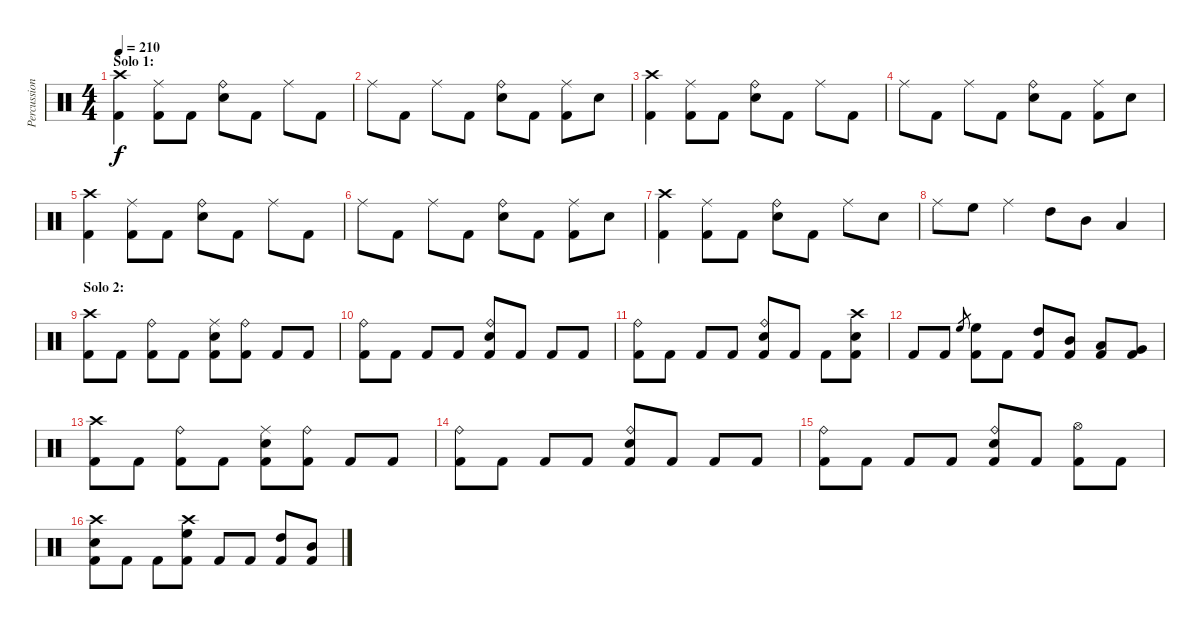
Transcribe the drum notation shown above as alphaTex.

\track ("Percussion" "Percussion") {instrument percussion}
\staff {score}
\articulation defaults
\ts (4 4)
\section ("" "Solo 1:")
\tempo 210
\clef neutral
\ks c
("Crash high (hit)" "Kick (hit) 2").4{dy f} ("Ride (middle)" "Kick (hit) 2").8 "Kick (hit) 2".8 ("Ride (bell)" "Snare (hit) 2").8 "Kick (hit) 2".8 "Ride (middle)".8 "Kick (hit) 2".8 |
"Ride (middle)".8 "Kick (hit) 2".8 "Ride (middle)".8 "Kick (hit) 2".8 ("Ride (bell)" "Snare (hit) 2").8 "Kick (hit) 2".8 ("Ride (middle)" "Kick (hit) 2").8 "Snare (hit) 2".8 |
("Crash high (hit)" "Kick (hit) 2").4 ("Ride (middle)" "Kick (hit) 2").8 "Kick (hit) 2".8 ("Ride (bell)" "Snare (hit) 2").8 "Kick (hit) 2".8 "Ride (middle)".8 "Kick (hit) 2".8 |
"Ride (middle)".8 "Kick (hit) 2".8 "Ride (middle)".8 "Kick (hit) 2".8 ("Ride (bell)" "Snare (hit) 2").8 "Kick (hit) 2".8 ("Ride (middle)" "Kick (hit) 2").8 "Snare (hit) 2".8 |
("Crash high (hit)" "Kick (hit) 2").4 ("Ride (middle)" "Kick (hit) 2").8 "Kick (hit) 2".8 ("Ride (bell)" "Snare (hit) 2").8 "Kick (hit) 2".8 "Ride (middle)".8 "Kick (hit) 2".8 |
"Ride (middle)".8 "Kick (hit) 2".8 "Ride (middle)".8 "Kick (hit) 2".8 ("Ride (bell)" "Snare (hit) 2").8 "Kick (hit) 2".8 ("Ride (middle)" "Kick (hit) 2").8 "Snare (hit) 2".8 |
("Crash high (hit)" "Kick (hit) 2").4 ("Ride (middle)" "Kick (hit) 2").8 "Kick (hit) 2".8 ("Ride (bell)" "Snare (hit) 2").8 "Kick (hit) 2".8 "Ride (middle)".8 "Snare (hit) 2".8 |
"Ride (middle)".8 "High Floor Tom (hit)".8 "Ride (middle)".4 "High Tom (hit)".8 "Mid Tom (hit)".8 "Low Tom (hit)".4 |
\section ("" "Solo 2:")
("Crash high (hit)" "Kick (hit) 2").8 "Kick (hit) 2".8 ("Ride (bell)" "Kick (hit) 2").8 "Kick (hit) 2".8 ("Ride (middle)" "Snare (hit) 2" "Kick (hit) 2").8 ("Ride (bell)" "Kick (hit) 2").8 "Kick (hit) 2".8 "Kick (hit) 2".8 |
("Ride (bell)" "Kick (hit) 2").8 "Kick (hit) 2".8 "Kick (hit) 2".8 "Kick (hit) 2".8 ("Ride (bell)" "Snare (hit) 2" "Kick (hit) 2").8 "Kick (hit) 2".8 "Kick (hit) 2".8 "Kick (hit) 2".8 |
("Ride (bell)" "Kick (hit) 2").8 "Kick (hit) 2".8 "Kick (hit) 2".8 "Kick (hit) 2".8 ("Ride (bell)" "Snare (hit) 2" "Kick (hit) 2").8 "Kick (hit) 2".8 "Kick (hit) 2".8 ("Crash high (hit)" "Snare (hit) 2" "Kick (hit) 2").8 |
"Kick (hit) 2".8 "Kick (hit) 2".8 "High Floor Tom (hit)".8{gr} ("High Floor Tom (hit)" "Kick (hit) 2").8 "Kick (hit) 2".8 ("High Tom (hit)" "Kick (hit) 2").8 ("Mid Tom (hit)" "Kick (hit) 2").8 ("Low Tom (hit)" "Kick (hit) 2").8 ("Very Low Tom (hit)" "Kick (hit) 2").8 |
("Crash high (hit)" "Kick (hit) 2").8 "Kick (hit) 2".8 ("Ride (bell)" "Kick (hit) 2").8 "Kick (hit) 2".8 ("Ride (middle)" "Snare (hit) 2" "Kick (hit) 2").8 ("Ride (bell)" "Kick (hit) 2").8 "Kick (hit) 2".8 "Kick (hit) 2".8 |
("Ride (bell)" "Kick (hit) 2").8 "Kick (hit) 2".8 "Kick (hit) 2".8 "Kick (hit) 2".8 ("Ride (bell)" "Snare (hit) 2" "Kick (hit) 2").8 "Kick (hit) 2".8 "Kick (hit) 2".8 "Kick (hit) 2".8 |
("Ride (bell)" "Kick (hit) 2").8 "Kick (hit) 2".8 "Kick (hit) 2".8 "Kick (hit) 2".8 ("Ride (bell)" "Snare (hit) 2" "Kick (hit) 2").8 "Kick (hit) 2".8 ("Hi-Hat (open)" "Kick (hit) 2").8 "Kick (hit) 2".8 |
("Crash high (hit)" "Snare (hit) 2" "Kick (hit) 2").8 "Kick (hit) 2".8 "Kick (hit) 2".8 ("Crash high (hit)" "High Floor Tom (hit)" "Kick (hit) 2").8 "Kick (hit) 2".8 "Kick (hit) 2".8 ("High Tom (hit)" "Kick (hit) 2").8 ("Mid Tom (hit)" "Kick (hit) 2").8
